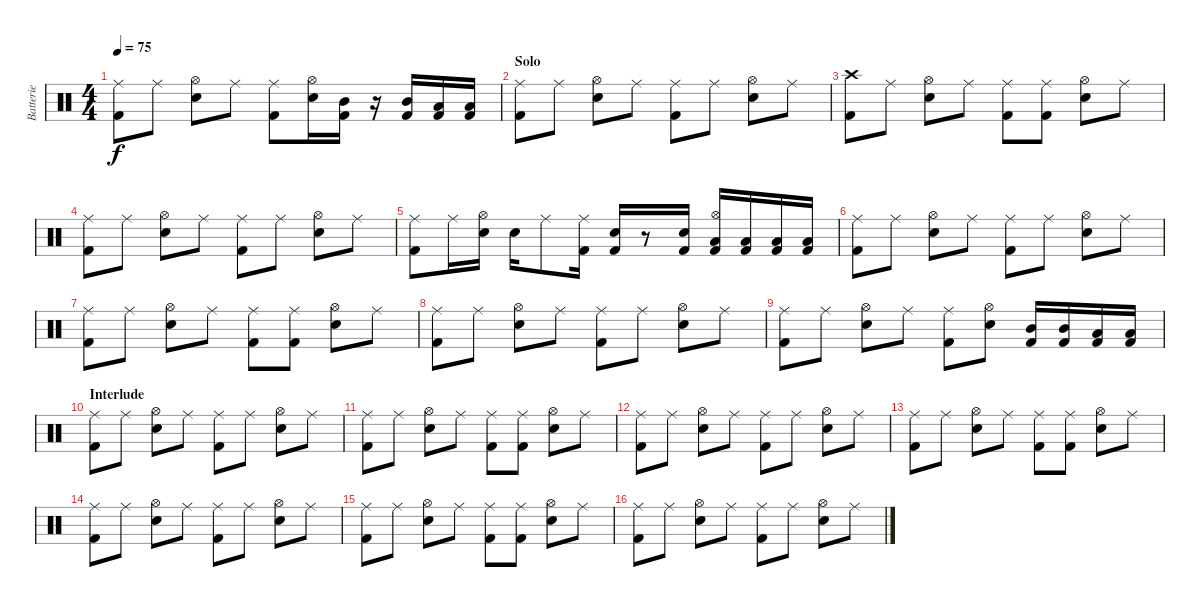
\track ("Batterie" "Batterie") {instrument percussion}
\staff {score}
\articulation defaults
\ts (4 4)
\tempo 75
\clef neutral
\ks c
("Ride (middle)" "Kick (hit) 2").8{dy f} "Ride (middle)".8 ("Hi-Hat (open)" "Snare (hit) 2").8 "Ride (middle)".8 ("Ride (middle)" "Kick (hit) 2").8 ("Hi-Hat (open)" "Snare (hit) 2").16 ("Mid Tom (hit)" "Kick (hit) 2").16 r.16 ("Mid Tom (hit)" "Kick (hit) 2").16 ("Low Tom (hit)" "Kick (hit) 2").16 ("Low Tom (hit)" "Kick (hit) 2").16 |
\section ("" "Solo")
("Ride (middle)" "Kick (hit) 2").8 "Ride (middle)".8 ("Hi-Hat (open)" "Snare (hit) 2").8 "Ride (middle)".8 ("Ride (middle)" "Kick (hit) 2").8 "Ride (middle)".8 ("Hi-Hat (open)" "Snare (hit) 2").8 "Ride (middle)".8 |
("Crash high (hit)" "Kick (hit) 2").8 "Ride (middle)".8 ("Hi-Hat (open)" "Snare (hit) 2").8 "Ride (middle)".8 ("Ride (middle)" "Kick (hit) 2").8 ("Ride (middle)" "Kick (hit) 2").8 ("Hi-Hat (open)" "Snare (hit) 2").8 "Ride (middle)".8 |
("Ride (middle)" "Kick (hit) 2").8 "Ride (middle)".8 ("Hi-Hat (open)" "Snare (hit) 2").8 "Ride (middle)".8 ("Ride (middle)" "Kick (hit) 2").8 "Ride (middle)".8 ("Hi-Hat (open)" "Snare (hit) 2").8 "Ride (middle)".8 |
("Ride (middle)" "Kick (hit) 2").8 "Ride (middle)".16 ("Hi-Hat (open)" "Snare (hit) 2").16 "Snare (hit) 2".16 "Ride (middle)".8 ("Ride (middle)" "Kick (hit) 2").16 ("Snare (hit) 2" "Kick (hit) 2").16 r.8 ("Snare (hit) 2" "Kick (hit) 2").16 ("Hi-Hat (open)" "Low Tom (hit)" "Kick (hit) 2").16 ("Low Tom (hit)" "Kick (hit) 2").16 ("Low Floor Tom (hit)" "Kick (hit) 2").16 ("Low Floor Tom (hit)" "Kick (hit) 2").16 |
("Ride (middle)" "Kick (hit) 2").8 "Ride (middle)".8 ("Hi-Hat (open)" "Snare (hit) 2").8 "Ride (middle)".8 ("Ride (middle)" "Kick (hit) 2").8 "Ride (middle)".8 ("Hi-Hat (open)" "Snare (hit) 2").8 "Ride (middle)".8 |
("Ride (middle)" "Kick (hit) 2").8 "Ride (middle)".8 ("Hi-Hat (open)" "Snare (hit) 2").8 "Ride (middle)".8 ("Ride (middle)" "Kick (hit) 2").8 ("Ride (middle)" "Kick (hit) 2").8 ("Hi-Hat (open)" "Snare (hit) 2").8 "Ride (middle)".8 |
("Ride (middle)" "Kick (hit) 2").8 "Ride (middle)".8 ("Hi-Hat (open)" "Snare (hit) 2").8 "Ride (middle)".8 ("Ride (middle)" "Kick (hit) 2").8 "Ride (middle)".8 ("Hi-Hat (open)" "Snare (hit) 2").8 "Ride (middle)".8 |
("Ride (middle)" "Kick (hit) 2").8 "Ride (middle)".8 ("Hi-Hat (open)" "Snare (hit) 2").8 "Ride (middle)".8 ("Ride (middle)" "Kick (hit) 2").8 ("Hi-Hat (open)" "Snare (hit) 2").8 ("Mid Tom (hit)" "Kick (hit) 2").16 ("Mid Tom (hit)" "Kick (hit) 2").16 ("Low Tom (hit)" "Kick (hit) 2").16 ("Low Tom (hit)" "Kick (hit) 2").16 |
\section ("" "Interlude")
("Ride (middle)" "Kick (hit) 2").8 "Ride (middle)".8 ("Hi-Hat (open)" "Snare (hit) 2").8 "Ride (middle)".8 ("Ride (middle)" "Kick (hit) 2").8 "Ride (middle)".8 ("Hi-Hat (open)" "Snare (hit) 2").8 "Ride (middle)".8 |
("Ride (middle)" "Kick (hit) 2").8 "Ride (middle)".8 ("Hi-Hat (open)" "Snare (hit) 2").8 "Ride (middle)".8 ("Ride (middle)" "Kick (hit) 2").8 ("Ride (middle)" "Kick (hit) 2").8 ("Hi-Hat (open)" "Snare (hit) 2").8 "Ride (middle)".8 |
("Ride (middle)" "Kick (hit) 2").8 "Ride (middle)".8 ("Hi-Hat (open)" "Snare (hit) 2").8 "Ride (middle)".8 ("Ride (middle)" "Kick (hit) 2").8 "Ride (middle)".8 ("Hi-Hat (open)" "Snare (hit) 2").8 "Ride (middle)".8 |
("Ride (middle)" "Kick (hit) 2").8 "Ride (middle)".8 ("Hi-Hat (open)" "Snare (hit) 2").8 "Ride (middle)".8 ("Ride (middle)" "Kick (hit) 2").8 ("Ride (middle)" "Kick (hit) 2").8 ("Hi-Hat (open)" "Snare (hit) 2").8 "Ride (middle)".8 |
("Ride (middle)" "Kick (hit) 2").8 "Ride (middle)".8 ("Hi-Hat (open)" "Snare (hit) 2").8 "Ride (middle)".8 ("Ride (middle)" "Kick (hit) 2").8 "Ride (middle)".8 ("Hi-Hat (open)" "Snare (hit) 2").8 "Ride (middle)".8 |
("Ride (middle)" "Kick (hit) 2").8 "Ride (middle)".8 ("Hi-Hat (open)" "Snare (hit) 2").8 "Ride (middle)".8 ("Ride (middle)" "Kick (hit) 2").8 ("Ride (middle)" "Kick (hit) 2").8 ("Hi-Hat (open)" "Snare (hit) 2").8 "Ride (middle)".8 |
("Ride (middle)" "Kick (hit) 2").8 "Ride (middle)".8 ("Hi-Hat (open)" "Snare (hit) 2").8 "Ride (middle)".8 ("Ride (middle)" "Kick (hit) 2").8 "Ride (middle)".8 ("Hi-Hat (open)" "Snare (hit) 2").8 "Ride (middle)".8
